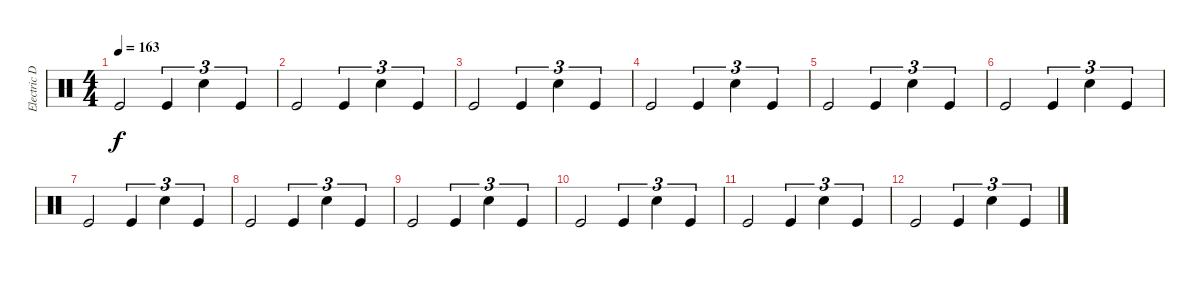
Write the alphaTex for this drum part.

\track ("Electric Drums" "Electric D") {instrument percussion}
\staff {score}
\articulation defaults
\ts (4 4)
\tempo 163
\clef neutral
\ks c "Kick (hit)".2{dy f} "Kick (hit)".4{tu (3 2)} "Electric Snare (hit)".4{tu (3 2)} "Kick (hit)".4{tu (3 2)}
|
"Kick (hit)".2 "Kick (hit)".4{tu (3 2)} "Electric Snare (hit)".4{tu (3 2)} "Kick (hit)".4{tu (3 2)} |
"Kick (hit)".2 "Kick (hit)".4{tu (3 2)} "Electric Snare (hit)".4{tu (3 2)} "Kick (hit)".4{tu (3 2)} |
"Kick (hit)".2 "Kick (hit)".4{tu (3 2)} "Electric Snare (hit)".4{tu (3 2)} "Kick (hit)".4{tu (3 2)} |
"Kick (hit)".2 "Kick (hit)".4{tu (3 2)} "Electric Snare (hit)".4{tu (3 2)} "Kick (hit)".4{tu (3 2)} |
"Kick (hit)".2 "Kick (hit)".4{tu (3 2)} "Electric Snare (hit)".4{tu (3 2)} "Kick (hit)".4{tu (3 2)} |
"Kick (hit)".2 "Kick (hit)".4{tu (3 2)} "Electric Snare (hit)".4{tu (3 2)} "Kick (hit)".4{tu (3 2)} |
"Kick (hit)".2 "Kick (hit)".4{tu (3 2)} "Electric Snare (hit)".4{tu (3 2)} "Kick (hit)".4{tu (3 2)} |
"Kick (hit)".2 "Kick (hit)".4{tu (3 2)} "Electric Snare (hit)".4{tu (3 2)} "Kick (hit)".4{tu (3 2)} |
"Kick (hit)".2 "Kick (hit)".4{tu (3 2)} "Electric Snare (hit)".4{tu (3 2)} "Kick (hit)".4{tu (3 2)} |
"Kick (hit)".2 "Kick (hit)".4{tu (3 2)} "Electric Snare (hit)".4{tu (3 2)} "Kick (hit)".4{tu (3 2)} |
"Kick (hit)".2 "Kick (hit)".4{tu (3 2)} "Electric Snare (hit)".4{tu (3 2)} "Kick (hit)".4{tu (3 2)}
